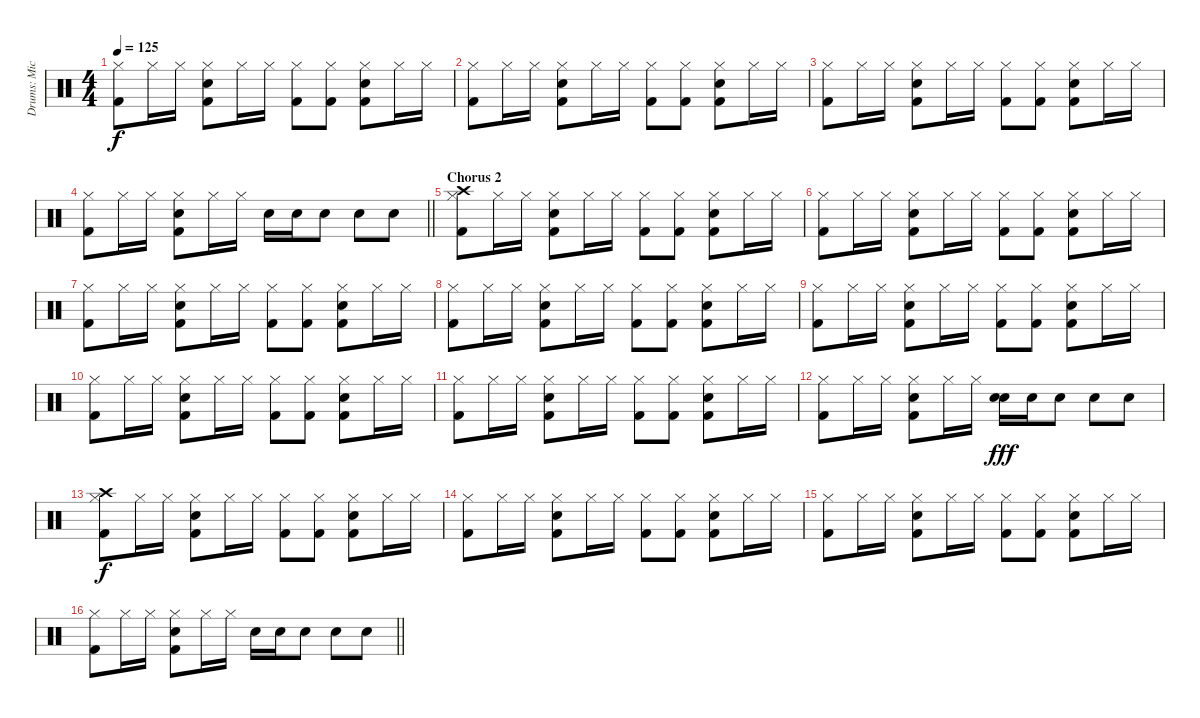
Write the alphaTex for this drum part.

\track ("Drums: Mick Fleetwood" "Drums: Mic") {instrument percussion}
\staff {score}
\articulation defaults
\ts (4 4)
\tempo 125
\clef neutral
\ks c
("Hi-Hat (closed)" "Kick (hit) 2").8{dy f} "Hi-Hat (closed)".16 "Hi-Hat (closed)".16 ("Hi-Hat (closed)" "Snare (hit) 2" "Kick (hit) 2").8 "Hi-Hat (closed)".16 "Hi-Hat (closed)".16 ("Hi-Hat (closed)" "Kick (hit) 2").8 ("Hi-Hat (closed)" "Kick (hit) 2").8 ("Hi-Hat (closed)" "Snare (hit) 2" "Kick (hit) 2").8 "Hi-Hat (closed)".16 "Hi-Hat (closed)".16 |
("Hi-Hat (closed)" "Kick (hit) 2").8 "Hi-Hat (closed)".16 "Hi-Hat (closed)".16 ("Hi-Hat (closed)" "Snare (hit) 2" "Kick (hit) 2").8 "Hi-Hat (closed)".16 "Hi-Hat (closed)".16 ("Hi-Hat (closed)" "Kick (hit) 2").8 ("Hi-Hat (closed)" "Kick (hit) 2").8 ("Hi-Hat (closed)" "Snare (hit) 2" "Kick (hit) 2").8 "Hi-Hat (closed)".16 "Hi-Hat (closed)".16 |
("Hi-Hat (closed)" "Kick (hit) 2").8 "Hi-Hat (closed)".16 "Hi-Hat (closed)".16 ("Hi-Hat (closed)" "Snare (hit) 2" "Kick (hit) 2").8 "Hi-Hat (closed)".16 "Hi-Hat (closed)".16 ("Hi-Hat (closed)" "Kick (hit) 2").8 ("Hi-Hat (closed)" "Kick (hit) 2").8 ("Hi-Hat (closed)" "Snare (hit) 2" "Kick (hit) 2").8 "Hi-Hat (closed)".16 "Hi-Hat (closed)".16 |
\barLineRight lightlight
("Hi-Hat (closed)" "Kick (hit) 2").8 "Hi-Hat (closed)".16 "Hi-Hat (closed)".16 ("Hi-Hat (closed)" "Snare (hit) 2" "Kick (hit) 2").8 "Hi-Hat (closed)".16 "Hi-Hat (closed)".16 "Snare (hit) 2".16 "Snare (hit) 2".16 "Snare (hit) 2".8 "Snare (hit) 2".8 "Snare (hit) 2".8 |
\section ("" "Chorus 2")
("Crash high (hit)" "Hi-Hat (closed)" "Kick (hit) 2").8 "Hi-Hat (closed)".16 "Hi-Hat (closed)".16 ("Hi-Hat (closed)" "Snare (hit) 2" "Kick (hit) 2").8 "Hi-Hat (closed)".16 "Hi-Hat (closed)".16 ("Hi-Hat (closed)" "Kick (hit) 2").8 ("Hi-Hat (closed)" "Kick (hit) 2").8 ("Hi-Hat (closed)" "Snare (hit) 2" "Kick (hit) 2").8 "Hi-Hat (closed)".16 "Hi-Hat (closed)".16 |
("Hi-Hat (closed)" "Kick (hit) 2").8 "Hi-Hat (closed)".16 "Hi-Hat (closed)".16 ("Hi-Hat (closed)" "Snare (hit) 2" "Kick (hit) 2").8 "Hi-Hat (closed)".16 "Hi-Hat (closed)".16 ("Hi-Hat (closed)" "Kick (hit) 2").8 ("Hi-Hat (closed)" "Kick (hit) 2").8 ("Hi-Hat (closed)" "Snare (hit) 2" "Kick (hit) 2").8 "Hi-Hat (closed)".16 "Hi-Hat (closed)".16 |
("Hi-Hat (closed)" "Kick (hit) 2").8 "Hi-Hat (closed)".16 "Hi-Hat (closed)".16 ("Hi-Hat (closed)" "Snare (hit) 2" "Kick (hit) 2").8 "Hi-Hat (closed)".16 "Hi-Hat (closed)".16 ("Hi-Hat (closed)" "Kick (hit) 2").8 ("Hi-Hat (closed)" "Kick (hit) 2").8 ("Hi-Hat (closed)" "Snare (hit) 2" "Kick (hit) 2").8 "Hi-Hat (closed)".16 "Hi-Hat (closed)".16 |
("Hi-Hat (closed)" "Kick (hit) 2").8 "Hi-Hat (closed)".16 "Hi-Hat (closed)".16 ("Hi-Hat (closed)" "Snare (hit) 2" "Kick (hit) 2").8 "Hi-Hat (closed)".16 "Hi-Hat (closed)".16 ("Hi-Hat (closed)" "Kick (hit) 2").8 ("Hi-Hat (closed)" "Kick (hit) 2").8 ("Hi-Hat (closed)" "Snare (hit) 2" "Kick (hit) 2").8 "Hi-Hat (closed)".16 "Hi-Hat (closed)".16 |
("Hi-Hat (closed)" "Kick (hit) 2").8 "Hi-Hat (closed)".16 "Hi-Hat (closed)".16 ("Hi-Hat (closed)" "Snare (hit) 2" "Kick (hit) 2").8 "Hi-Hat (closed)".16 "Hi-Hat (closed)".16 ("Hi-Hat (closed)" "Kick (hit) 2").8 ("Hi-Hat (closed)" "Kick (hit) 2").8 ("Hi-Hat (closed)" "Snare (hit) 2" "Kick (hit) 2").8 "Hi-Hat (closed)".16 "Hi-Hat (closed)".16 |
("Hi-Hat (closed)" "Kick (hit) 2").8 "Hi-Hat (closed)".16 "Hi-Hat (closed)".16 ("Hi-Hat (closed)" "Snare (hit) 2" "Kick (hit) 2").8 "Hi-Hat (closed)".16 "Hi-Hat (closed)".16 ("Hi-Hat (closed)" "Kick (hit) 2").8 ("Hi-Hat (closed)" "Kick (hit) 2").8 ("Hi-Hat (closed)" "Snare (hit) 2" "Kick (hit) 2").8 "Hi-Hat (closed)".16 "Hi-Hat (closed)".16 |
("Hi-Hat (closed)" "Kick (hit) 2").8 "Hi-Hat (closed)".16 "Hi-Hat (closed)".16 ("Hi-Hat (closed)" "Snare (hit) 2" "Kick (hit) 2").8 "Hi-Hat (closed)".16 "Hi-Hat (closed)".16 ("Hi-Hat (closed)" "Kick (hit) 2").8 ("Hi-Hat (closed)" "Kick (hit) 2").8 ("Hi-Hat (closed)" "Snare (hit) 2" "Kick (hit) 2").8 "Hi-Hat (closed)".16 "Hi-Hat (closed)".16 |
("Hi-Hat (closed)" "Kick (hit) 2").8 "Hi-Hat (closed)".16 "Hi-Hat (closed)".16 ("Hi-Hat (closed)" "Snare (hit) 2" "Kick (hit) 2").8 "Hi-Hat (closed)".16 "Hi-Hat (closed)".16 ("Snare (hit) 2" "Snare (hit) 2").16{dy fff} "Snare (hit) 2".16 "Snare (hit) 2".8 "Snare (hit) 2".8 "Snare (hit) 2".8 |
("Crash high (hit)" "Hi-Hat (closed)" "Kick (hit) 2").8{dy f} "Hi-Hat (closed)".16 "Hi-Hat (closed)".16 ("Hi-Hat (closed)" "Snare (hit) 2" "Kick (hit) 2").8 "Hi-Hat (closed)".16 "Hi-Hat (closed)".16 ("Hi-Hat (closed)" "Kick (hit) 2").8 ("Hi-Hat (closed)" "Kick (hit) 2").8 ("Hi-Hat (closed)" "Snare (hit) 2" "Kick (hit) 2").8 "Hi-Hat (closed)".16 "Hi-Hat (closed)".16 |
("Hi-Hat (closed)" "Kick (hit) 2").8 "Hi-Hat (closed)".16 "Hi-Hat (closed)".16 ("Hi-Hat (closed)" "Snare (hit) 2" "Kick (hit) 2").8 "Hi-Hat (closed)".16 "Hi-Hat (closed)".16 ("Hi-Hat (closed)" "Kick (hit) 2").8 ("Hi-Hat (closed)" "Kick (hit) 2").8 ("Hi-Hat (closed)" "Snare (hit) 2" "Kick (hit) 2").8 "Hi-Hat (closed)".16 "Hi-Hat (closed)".16 |
("Hi-Hat (closed)" "Kick (hit) 2").8 "Hi-Hat (closed)".16 "Hi-Hat (closed)".16 ("Hi-Hat (closed)" "Snare (hit) 2" "Kick (hit) 2").8 "Hi-Hat (closed)".16 "Hi-Hat (closed)".16 ("Hi-Hat (closed)" "Kick (hit) 2").8 ("Hi-Hat (closed)" "Kick (hit) 2").8 ("Hi-Hat (closed)" "Snare (hit) 2" "Kick (hit) 2").8 "Hi-Hat (closed)".16 "Hi-Hat (closed)".16 |
\barLineRight lightlight
("Hi-Hat (closed)" "Kick (hit) 2").8 "Hi-Hat (closed)".16 "Hi-Hat (closed)".16 ("Hi-Hat (closed)" "Snare (hit) 2" "Kick (hit) 2").8 "Hi-Hat (closed)".16 "Hi-Hat (closed)".16 "Snare (hit) 2".16 "Snare (hit) 2".16 "Snare (hit) 2".8 "Snare (hit) 2".8 "Snare (hit) 2".8
